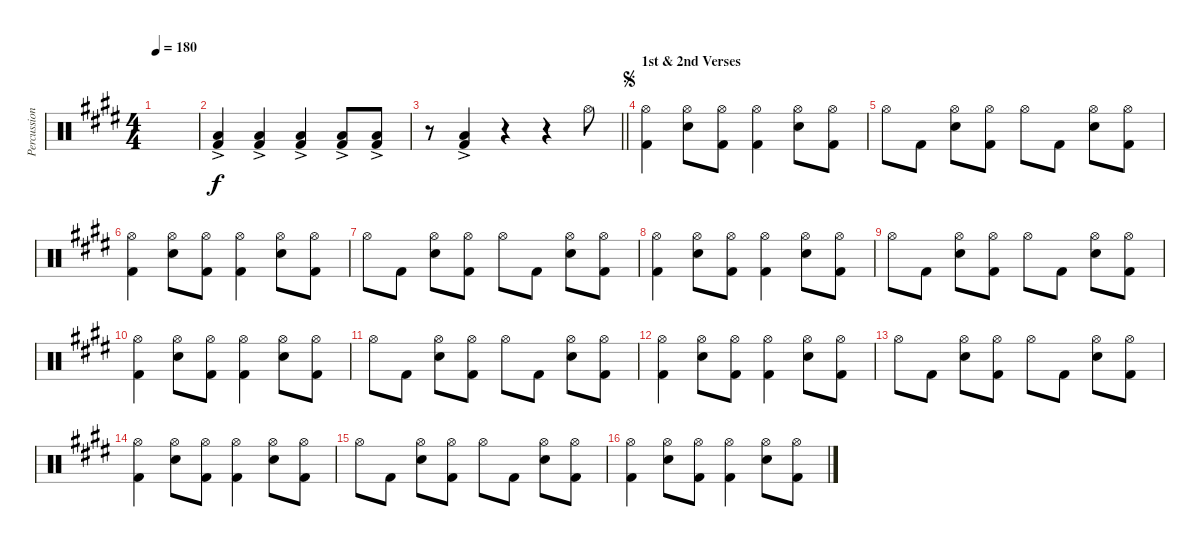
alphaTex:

\track ("Percussion" "Percussion") {instrument percussion}
\staff {score}
\articulation defaults
\ts (4 4)
\tempo 180
\clef neutral
\ks e
|
\ks c#minor
("Low Floor Tom (hit)"{ac} "Kick (hit) 2"{ac}).4 ("Low Floor Tom (hit)"{ac} "Kick (hit) 2"{ac}).4 ("Low Floor Tom (hit)"{ac} "Kick (hit) 2"{ac}).4 ("Low Floor Tom (hit)"{ac} "Kick (hit) 2"{ac}).8 ("Low Floor Tom (hit)"{ac} "Kick (hit) 2"{ac}).8 |
\barLineRight lightlight
r.8 ("Low Floor Tom (hit)"{ac} "Kick (hit) 2"{ac}).4 r.4 r.4 "Hi-Hat (open)".8{dy f} |
\section ("" "1st & 2nd Verses")
\jump segno
("Hi-Hat (open)" "Kick (hit) 2").4 ("Hi-Hat (open)" "Snare (hit) 2").8 ("Hi-Hat (open)" "Kick (hit) 2").8 ("Hi-Hat (open)" "Kick (hit) 2").4 ("Hi-Hat (open)" "Snare (hit) 2").8 ("Hi-Hat (open)" "Kick (hit) 2").8 |
"Hi-Hat (open)".8 "Kick (hit) 2".8 ("Hi-Hat (open)" "Snare (hit) 2").8 ("Hi-Hat (open)" "Kick (hit) 2").8 "Hi-Hat (open)".8 "Kick (hit) 2".8 ("Hi-Hat (open)" "Snare (hit) 2").8 ("Hi-Hat (open)" "Kick (hit) 2").8 |
("Hi-Hat (open)" "Kick (hit) 2").4 ("Hi-Hat (open)" "Snare (hit) 2").8 ("Hi-Hat (open)" "Kick (hit) 2").8 ("Hi-Hat (open)" "Kick (hit) 2").4 ("Hi-Hat (open)" "Snare (hit) 2").8 ("Hi-Hat (open)" "Kick (hit) 2").8 |
"Hi-Hat (open)".8 "Kick (hit) 2".8 ("Hi-Hat (open)" "Snare (hit) 2").8 ("Hi-Hat (open)" "Kick (hit) 2").8 "Hi-Hat (open)".8 "Kick (hit) 2".8 ("Hi-Hat (open)" "Snare (hit) 2").8 ("Hi-Hat (open)" "Kick (hit) 2").8 |
("Hi-Hat (open)" "Kick (hit) 2").4 ("Hi-Hat (open)" "Snare (hit) 2").8 ("Hi-Hat (open)" "Kick (hit) 2").8 ("Hi-Hat (open)" "Kick (hit) 2").4 ("Hi-Hat (open)" "Snare (hit) 2").8 ("Hi-Hat (open)" "Kick (hit) 2").8 |
"Hi-Hat (open)".8 "Kick (hit) 2".8 ("Hi-Hat (open)" "Snare (hit) 2").8 ("Hi-Hat (open)" "Kick (hit) 2").8 "Hi-Hat (open)".8 "Kick (hit) 2".8 ("Hi-Hat (open)" "Snare (hit) 2").8 ("Hi-Hat (open)" "Kick (hit) 2").8 |
("Hi-Hat (open)" "Kick (hit) 2").4 ("Hi-Hat (open)" "Snare (hit) 2").8 ("Hi-Hat (open)" "Kick (hit) 2").8 ("Hi-Hat (open)" "Kick (hit) 2").4 ("Hi-Hat (open)" "Snare (hit) 2").8 ("Hi-Hat (open)" "Kick (hit) 2").8 |
"Hi-Hat (open)".8 "Kick (hit) 2".8 ("Hi-Hat (open)" "Snare (hit) 2").8 ("Hi-Hat (open)" "Kick (hit) 2").8 "Hi-Hat (open)".8 "Kick (hit) 2".8 ("Hi-Hat (open)" "Snare (hit) 2").8 ("Hi-Hat (open)" "Kick (hit) 2").8 |
("Hi-Hat (open)" "Kick (hit) 2").4 ("Hi-Hat (open)" "Snare (hit) 2").8 ("Hi-Hat (open)" "Kick (hit) 2").8 ("Hi-Hat (open)" "Kick (hit) 2").4 ("Hi-Hat (open)" "Snare (hit) 2").8 ("Hi-Hat (open)" "Kick (hit) 2").8 |
"Hi-Hat (open)".8 "Kick (hit) 2".8 ("Hi-Hat (open)" "Snare (hit) 2").8 ("Hi-Hat (open)" "Kick (hit) 2").8 "Hi-Hat (open)".8 "Kick (hit) 2".8 ("Hi-Hat (open)" "Snare (hit) 2").8 ("Hi-Hat (open)" "Kick (hit) 2").8 |
("Hi-Hat (open)" "Kick (hit) 2").4 ("Hi-Hat (open)" "Snare (hit) 2").8 ("Hi-Hat (open)" "Kick (hit) 2").8 ("Hi-Hat (open)" "Kick (hit) 2").4 ("Hi-Hat (open)" "Snare (hit) 2").8 ("Hi-Hat (open)" "Kick (hit) 2").8 |
"Hi-Hat (open)".8 "Kick (hit) 2".8 ("Hi-Hat (open)" "Snare (hit) 2").8 ("Hi-Hat (open)" "Kick (hit) 2").8 "Hi-Hat (open)".8 "Kick (hit) 2".8 ("Hi-Hat (open)" "Snare (hit) 2").8 ("Hi-Hat (open)" "Kick (hit) 2").8 |
("Hi-Hat (open)" "Kick (hit) 2").4 ("Hi-Hat (open)" "Snare (hit) 2").8 ("Hi-Hat (open)" "Kick (hit) 2").8 ("Hi-Hat (open)" "Kick (hit) 2").4 ("Hi-Hat (open)" "Snare (hit) 2").8 ("Hi-Hat (open)" "Kick (hit) 2").8
